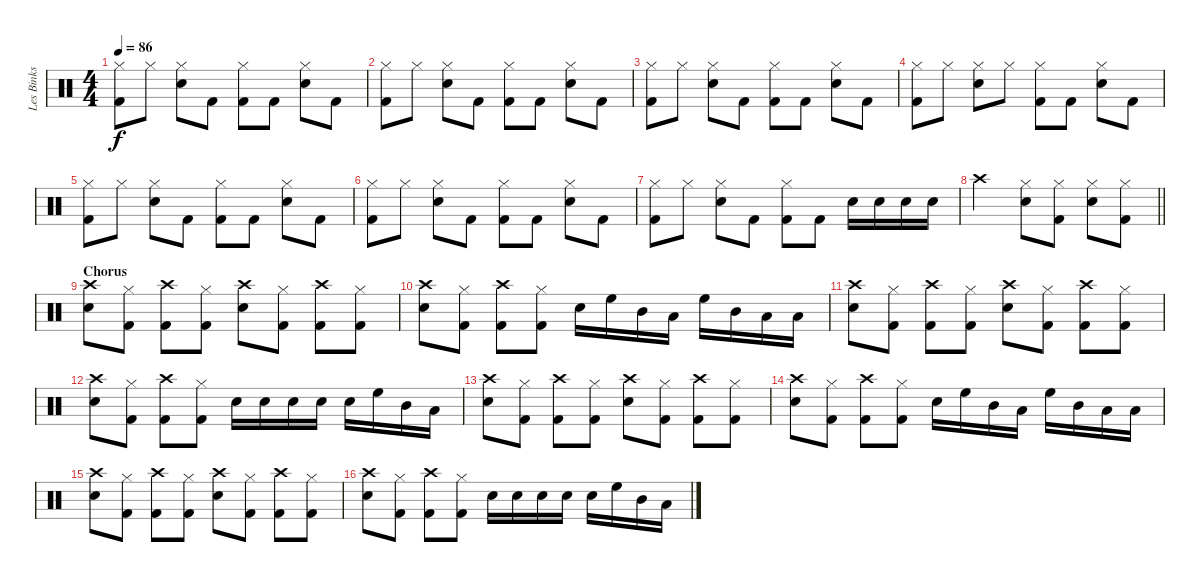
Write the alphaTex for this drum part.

\track ("Les Binks" "Les Binks") {instrument percussion}
\staff {score}
\articulation defaults
\ts (4 4)
\tempo 86
\clef neutral
\ks c
("Hi-Hat (closed)" "Kick (hit) 2").8{dy f} "Hi-Hat (closed)".8 ("Hi-Hat (closed)" "Snare (hit) 2").8 "Kick (hit) 2".8 ("Hi-Hat (closed)" "Kick (hit) 2").8 "Kick (hit) 2".8 ("Hi-Hat (closed)" "Snare (hit) 2").8 "Kick (hit) 2".8 |
("Hi-Hat (closed)" "Kick (hit) 2").8 "Hi-Hat (closed)".8 ("Hi-Hat (closed)" "Snare (hit) 2").8 "Kick (hit) 2".8 ("Hi-Hat (closed)" "Kick (hit) 2").8 "Kick (hit) 2".8 ("Hi-Hat (closed)" "Snare (hit) 2").8 "Kick (hit) 2".8 |
("Hi-Hat (closed)" "Kick (hit) 2").8 "Hi-Hat (closed)".8 ("Hi-Hat (closed)" "Snare (hit) 2").8 "Kick (hit) 2".8 ("Hi-Hat (closed)" "Kick (hit) 2").8 "Kick (hit) 2".8 ("Hi-Hat (closed)" "Snare (hit) 2").8 "Kick (hit) 2".8 |
("Hi-Hat (closed)" "Kick (hit) 2").8 "Hi-Hat (closed)".8 ("Snare (hit) 2" "Hi-Hat (closed)").8 "Hi-Hat (closed)".8 ("Hi-Hat (closed)" "Kick (hit) 2").8 "Kick (hit) 2".8 ("Hi-Hat (closed)" "Snare (hit) 2").8 "Kick (hit) 2".8 |
("Hi-Hat (closed)" "Kick (hit) 2").8 "Hi-Hat (closed)".8 ("Hi-Hat (closed)" "Snare (hit) 2").8 "Kick (hit) 2".8 ("Hi-Hat (closed)" "Kick (hit) 2").8 "Kick (hit) 2".8 ("Hi-Hat (closed)" "Snare (hit) 2").8 "Kick (hit) 2".8 |
("Hi-Hat (closed)" "Kick (hit) 2").8 "Hi-Hat (closed)".8 ("Hi-Hat (closed)" "Snare (hit) 2").8 "Kick (hit) 2".8 ("Hi-Hat (closed)" "Kick (hit) 2").8 "Kick (hit) 2".8 ("Hi-Hat (closed)" "Snare (hit) 2").8 "Kick (hit) 2".8 |
("Hi-Hat (closed)" "Kick (hit) 2").8 "Hi-Hat (closed)".8 ("Hi-Hat (closed)" "Snare (hit) 2").8 "Kick (hit) 2".8 ("Hi-Hat (closed)" "Kick (hit) 2").8 "Kick (hit) 2".8 "Snare (hit) 2".16 "Snare (hit) 2".16 "Snare (hit) 2".16 "Snare (hit) 2".16 |
\barLineRight lightlight "Crash high (hit)".2
("Hi-Hat (closed)" "Snare (hit) 2").8 ("Hi-Hat (closed)" "Kick (hit) 2").8 ("Hi-Hat (closed)" "Snare (hit) 2").8 ("Hi-Hat (closed)" "Kick (hit) 2").8 |
\section ("" "Chorus")
("Snare (hit) 2" "Crash high (hit)").8 ("Hi-Hat (closed)" "Kick (hit) 2").8 ("Kick (hit) 2" "Crash high (hit)").8 ("Hi-Hat (closed)" "Kick (hit) 2").8 ("Snare (hit) 2" "Crash high (hit)").8 ("Hi-Hat (closed)" "Kick (hit) 2").8 ("Crash high (hit)" "Kick (hit) 2").8 ("Hi-Hat (closed)" "Kick (hit) 2").8 |
("Snare (hit) 2" "Crash high (hit)").8 ("Hi-Hat (closed)" "Kick (hit) 2").8 ("Kick (hit) 2" "Crash high (hit)").8 ("Hi-Hat (closed)" "Kick (hit) 2").8 "Snare (hit) 2".16 "High Floor Tom (hit)".16 "Mid Tom (hit)".16 "Low Tom (hit)".16 "High Floor Tom (hit)".16 "Mid Tom (hit)".16 "Low Tom (hit)".16 "Low Floor Tom (hit)".16 |
("Snare (hit) 2" "Crash high (hit)").8 ("Hi-Hat (closed)" "Kick (hit) 2").8 ("Kick (hit) 2" "Crash high (hit)").8 ("Hi-Hat (closed)" "Kick (hit) 2").8 ("Snare (hit) 2" "Crash high (hit)").8 ("Hi-Hat (closed)" "Kick (hit) 2").8 ("Crash high (hit)" "Kick (hit) 2").8 ("Hi-Hat (closed)" "Kick (hit) 2").8 |
("Snare (hit) 2" "Crash high (hit)").8 ("Hi-Hat (closed)" "Kick (hit) 2").8 ("Kick (hit) 2" "Crash high (hit)").8 ("Hi-Hat (closed)" "Kick (hit) 2").8 "Snare (hit) 2".16 "Snare (hit) 2".16 "Snare (hit) 2".16 "Snare (hit) 2".16 "Snare (hit) 2".16 "High Floor Tom (hit)".16 "Mid Tom (hit)".16 "Low Tom (hit)".16 |
("Snare (hit) 2" "Crash high (hit)").8 ("Hi-Hat (closed)" "Kick (hit) 2").8 ("Kick (hit) 2" "Crash high (hit)").8 ("Hi-Hat (closed)" "Kick (hit) 2").8 ("Snare (hit) 2" "Crash high (hit)").8 ("Hi-Hat (closed)" "Kick (hit) 2").8 ("Crash high (hit)" "Kick (hit) 2").8 ("Hi-Hat (closed)" "Kick (hit) 2").8 |
("Snare (hit) 2" "Crash high (hit)").8 ("Hi-Hat (closed)" "Kick (hit) 2").8 ("Kick (hit) 2" "Crash high (hit)").8 ("Hi-Hat (closed)" "Kick (hit) 2").8 "Snare (hit) 2".16 "High Floor Tom (hit)".16 "Mid Tom (hit)".16 "Low Tom (hit)".16 "High Floor Tom (hit)".16 "Mid Tom (hit)".16 "Low Tom (hit)".16 "Low Floor Tom (hit)".16 |
("Snare (hit) 2" "Crash high (hit)").8 ("Hi-Hat (closed)" "Kick (hit) 2").8 ("Kick (hit) 2" "Crash high (hit)").8 ("Hi-Hat (closed)" "Kick (hit) 2").8 ("Snare (hit) 2" "Crash high (hit)").8 ("Hi-Hat (closed)" "Kick (hit) 2").8 ("Crash high (hit)" "Kick (hit) 2").8 ("Hi-Hat (closed)" "Kick (hit) 2").8 |
("Snare (hit) 2" "Crash high (hit)").8 ("Hi-Hat (closed)" "Kick (hit) 2").8 ("Kick (hit) 2" "Crash high (hit)").8 ("Hi-Hat (closed)" "Kick (hit) 2").8 "Snare (hit) 2".16 "Snare (hit) 2".16 "Snare (hit) 2".16 "Snare (hit) 2".16 "Snare (hit) 2".16 "High Floor Tom (hit)".16 "Mid Tom (hit)".16 "Low Tom (hit)".16
